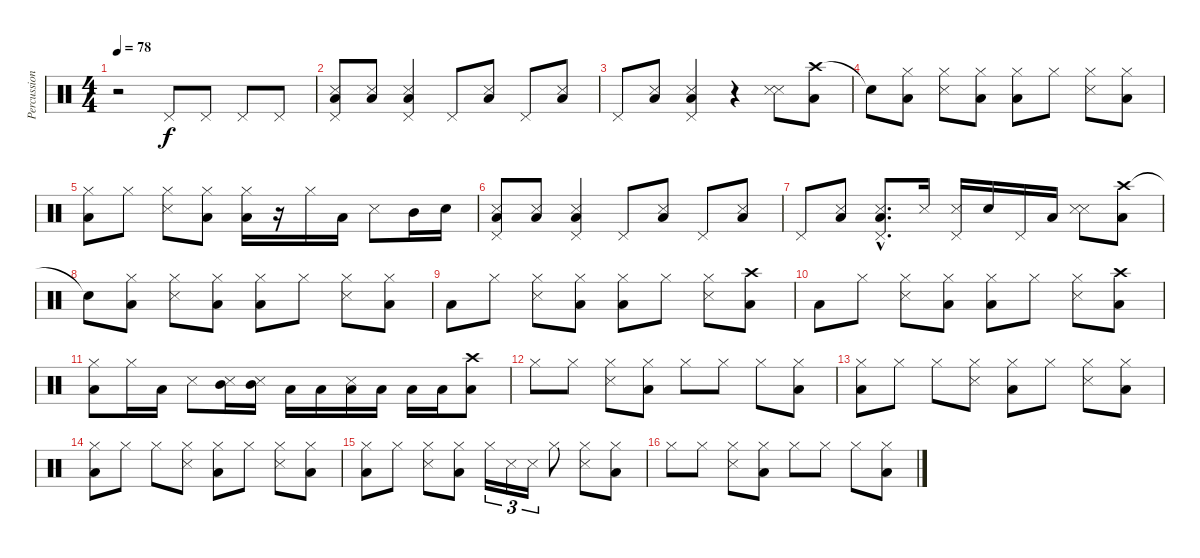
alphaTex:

\track ("Percussions" "Percussion") {instrument percussion}
\staff {score}
\articulation defaults
\ts (4 4)
\tempo 78
\clef neutral
\ks c
r.2{dy f} "Pedal Hi-Hat (hit)".8 "Pedal Hi-Hat (hit)".8 "Pedal Hi-Hat (hit)".8 "Pedal Hi-Hat (hit)".8 |
("Snare (side stick) 3" "Low Tom (hit)" "Pedal Hi-Hat (hit)").8 ("Snare (side stick) 3" "Low Tom (hit)").8 ("Snare (side stick) 3" "Low Tom (hit)" "Pedal Hi-Hat (hit)").4 "Pedal Hi-Hat (hit)".8 ("Snare (side stick) 3" "Low Tom (hit)").8 "Pedal Hi-Hat (hit)".8 ("Snare (side stick) 3" "Low Tom (hit)").8 |
"Pedal Hi-Hat (hit)".8 ("Snare (side stick) 3" "Low Tom (hit)").8 ("Snare (side stick) 3" "Low Tom (hit)" "Pedal Hi-Hat (hit)").4 r.4 ("Snare (side stick) 3" "Snare (side stick) 3").8 ("Crash high (hit)" "Low Floor Tom (hit)").8 |
"Snare (hit)"{t}.8 ("Hi-Hat (closed)" "Low Floor Tom (hit)").8 ("Hi-Hat (closed)" "Snare (side stick) 3").8 ("Hi-Hat (closed)" "Low Floor Tom (hit)").8 ("Hi-Hat (closed)" "Low Floor Tom (hit)").8 "Hi-Hat (closed)".8 ("Hi-Hat (closed)" "Snare (side stick) 3").8 ("Hi-Hat (closed)" "Low Floor Tom (hit)").8 |
("Hi-Hat (closed)" "Low Floor Tom (hit)").8 "Hi-Hat (closed)".8 ("Hi-Hat (closed)" "Snare (side stick) 3").8 ("Hi-Hat (closed)" "Low Floor Tom (hit)").8 ("Hi-Hat (closed)" "Low Floor Tom (hit)").16 r.16 "Hi-Hat (closed)".16 "Low Floor Tom (hit)".16 "Snare (side stick) 3".8 "Mid Tom (hit)".16 "Snare (hit) 2".16 |
("Snare (side stick) 3" "Low Tom (hit)" "Pedal Hi-Hat (hit)").8 ("Snare (side stick) 3" "Low Tom (hit)").8 ("Snare (side stick) 3" "Low Tom (hit)" "Pedal Hi-Hat (hit)").4 "Pedal Hi-Hat (hit)".8 ("Snare (side stick) 3" "Low Tom (hit)").8 "Pedal Hi-Hat (hit)".8 ("Snare (side stick) 3" "Low Tom (hit)").8 |
"Pedal Hi-Hat (hit)".8 ("Snare (side stick) 3" "Low Tom (hit)").8 ("Snare (side stick) 3"{hac} "Low Tom (hit)"{hac} "Pedal Hi-Hat (hit)"{hac}).8{d} "Snare (side stick) 3".16 ("Snare (side stick) 3" "Pedal Hi-Hat (hit)").16 "Snare (hit) 2".16 "Pedal Hi-Hat (hit)".16 "Low Floor Tom (hit)".16 ("Snare (side stick) 3" "Snare (side stick) 3").8 ("Crash high (hit)" "Low Floor Tom (hit)").8 |
"Snare (hit)"{t}.8 ("Hi-Hat (closed)" "Low Floor Tom (hit)").8 ("Hi-Hat (closed)" "Snare (side stick) 3").8 ("Hi-Hat (closed)" "Low Floor Tom (hit)").8 ("Hi-Hat (closed)" "Low Floor Tom (hit)").8 "Hi-Hat (closed)".8 ("Hi-Hat (closed)" "Snare (side stick) 3").8 ("Hi-Hat (closed)" "Low Floor Tom (hit)").8 |
"Low Floor Tom (hit)".8 "Hi-Hat (closed)".8 ("Hi-Hat (closed)" "Snare (side stick) 3").8 ("Hi-Hat (closed)" "Low Floor Tom (hit)").8 ("Hi-Hat (closed)" "Low Floor Tom (hit)").8 "Hi-Hat (closed)".8 ("Hi-Hat (closed)" "Snare (side stick) 3").8 ("Crash high (hit)" "Low Floor Tom (hit)").8 |
"Low Floor Tom (hit)".8 "Hi-Hat (closed)".8 ("Hi-Hat (closed)" "Snare (side stick) 3").8 ("Hi-Hat (closed)" "Low Floor Tom (hit)").8 ("Hi-Hat (closed)" "Low Floor Tom (hit)").8 "Hi-Hat (closed)".8 ("Hi-Hat (closed)" "Snare (side stick) 3").8 ("Crash high (hit)" "Low Floor Tom (hit)").8 |
("Hi-Hat (closed)" "Low Floor Tom (hit)").8 "Hi-Hat (closed)".16 "Low Floor Tom (hit)".16 "Snare (side stick) 3".8 ("Mid Tom (hit)" "Snare (side stick) 3").16 ("Mid Tom (hit)" "Snare (side stick) 3").16 "Low Floor Tom (hit)".16 "Low Floor Tom (hit)".16 ("Snare (side stick) 3" "Low Tom (hit)").16 "Low Floor Tom (hit)".16 "Low Tom (hit)".16 "Low Tom (hit)".16 ("Crash high (hit)" "Low Floor Tom (hit)").8 |
"Hi-Hat (closed)".8 "Hi-Hat (closed)".8 ("Hi-Hat (closed)" "Snare (side stick) 3").8 ("Hi-Hat (closed)" "Low Floor Tom (hit)").8 "Hi-Hat (closed)".8 "Hi-Hat (closed)".8 "Hi-Hat (closed)".8 ("Hi-Hat (closed)" "Low Floor Tom (hit)").8 |
("Hi-Hat (closed)" "Low Floor Tom (hit)").8 "Hi-Hat (closed)".8 "Hi-Hat (closed)".8 ("Hi-Hat (closed)" "Snare (side stick) 3").8 ("Hi-Hat (closed)" "Low Floor Tom (hit)").8 "Hi-Hat (closed)".8 ("Hi-Hat (closed)" "Snare (side stick) 3").8 ("Hi-Hat (closed)" "Low Floor Tom (hit)").8 |
("Hi-Hat (closed)" "Low Floor Tom (hit)").8 "Hi-Hat (closed)".8 "Hi-Hat (closed)".8 ("Hi-Hat (closed)" "Snare (side stick) 3").8 ("Hi-Hat (closed)" "Low Floor Tom (hit)").8 "Hi-Hat (closed)".8 ("Hi-Hat (closed)" "Snare (side stick) 3").8 ("Hi-Hat (closed)" "Low Floor Tom (hit)").8 |
("Hi-Hat (closed)" "Low Floor Tom (hit)").8 "Hi-Hat (closed)".8 ("Hi-Hat (closed)" "Snare (side stick) 3").8 ("Hi-Hat (closed)" "Low Floor Tom (hit)").8 "Hi-Hat (closed)".16{tu (3 2)} "Snare (side stick) 3".16{tu (3 2)} "Snare (side stick) 3".16{tu (3 2)} "Hi-Hat (closed)".8 ("Hi-Hat (closed)" "Snare (side stick) 3").8 ("Hi-Hat (closed)" "Low Floor Tom (hit)").8 |
"Hi-Hat (closed)".8 "Hi-Hat (closed)".8 ("Hi-Hat (closed)" "Snare (side stick) 3").8 ("Hi-Hat (closed)" "Low Floor Tom (hit)").8 "Hi-Hat (closed)".8 "Hi-Hat (closed)".8 "Hi-Hat (closed)".8 ("Hi-Hat (closed)" "Low Floor Tom (hit)").8
